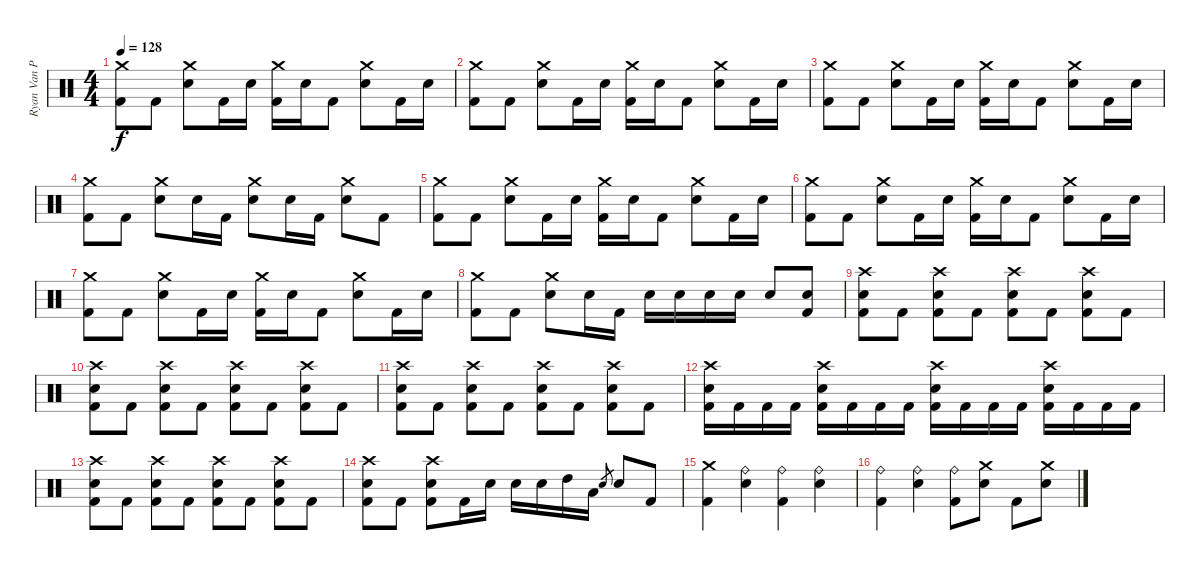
\track ("Ryan Van Poederooyen" "Ryan Van P") {instrument percussion}
\staff {score}
\articulation defaults
\ts (4 4)
\tempo 128
\clef neutral
\ks c
("Crash medium (hit)" "Kick (hit) 2").8{dy f} "Kick (hit) 2".8 ("Crash medium (hit)" "Electric Snare (hit)").8 "Kick (hit) 2".16 "Electric Snare (hit)".16 ("Crash medium (hit)" "Kick (hit) 2").16 "Electric Snare (hit)".16 "Kick (hit) 2".8 ("Crash medium (hit)" "Electric Snare (hit)").8 "Kick (hit) 2".16 "Electric Snare (hit)".16 |
("Crash medium (hit)" "Kick (hit) 2").8 "Kick (hit) 2".8 ("Crash medium (hit)" "Electric Snare (hit)").8 "Kick (hit) 2".16 "Electric Snare (hit)".16 ("Crash medium (hit)" "Kick (hit) 2").16 "Electric Snare (hit)".16 "Kick (hit) 2".8 ("Crash medium (hit)" "Electric Snare (hit)").8 "Kick (hit) 2".16 "Electric Snare (hit)".16 |
("Crash medium (hit)" "Kick (hit) 2").8 "Kick (hit) 2".8 ("Crash medium (hit)" "Electric Snare (hit)").8 "Kick (hit) 2".16 "Electric Snare (hit)".16 ("Crash medium (hit)" "Kick (hit) 2").16 "Electric Snare (hit)".16 "Kick (hit) 2".8 ("Crash medium (hit)" "Electric Snare (hit)").8 "Kick (hit) 2".16 "Electric Snare (hit)".16 |
("Crash medium (hit)" "Kick (hit) 2").8 "Kick (hit) 2".8 ("Crash medium (hit)" "Electric Snare (hit)").8 "Electric Snare (hit)".16 "Kick (hit) 2".16 ("Crash medium (hit)" "Electric Snare (hit)").8 "Electric Snare (hit)".16 "Kick (hit) 2".16 ("Crash medium (hit)" "Electric Snare (hit)").8 "Kick (hit) 2".8 |
("Crash medium (hit)" "Kick (hit) 2").8 "Kick (hit) 2".8 ("Crash medium (hit)" "Electric Snare (hit)").8 "Kick (hit) 2".16 "Electric Snare (hit)".16 ("Crash medium (hit)" "Kick (hit) 2").16 "Electric Snare (hit)".16 "Kick (hit) 2".8 ("Crash medium (hit)" "Electric Snare (hit)").8 "Kick (hit) 2".16 "Electric Snare (hit)".16 |
("Crash medium (hit)" "Kick (hit) 2").8 "Kick (hit) 2".8 ("Crash medium (hit)" "Electric Snare (hit)").8 "Kick (hit) 2".16 "Electric Snare (hit)".16 ("Crash medium (hit)" "Kick (hit) 2").16 "Electric Snare (hit)".16 "Kick (hit) 2".8 ("Crash medium (hit)" "Electric Snare (hit)").8 "Kick (hit) 2".16 "Electric Snare (hit)".16 |
("Crash medium (hit)" "Kick (hit) 2").8 "Kick (hit) 2".8 ("Crash medium (hit)" "Electric Snare (hit)").8 "Kick (hit) 2".16 "Electric Snare (hit)".16 ("Crash medium (hit)" "Kick (hit) 2").16 "Electric Snare (hit)".16 "Kick (hit) 2".8 ("Crash medium (hit)" "Electric Snare (hit)").8 "Kick (hit) 2".16 "Electric Snare (hit)".16 |
("Crash medium (hit)" "Kick (hit) 2").8 "Kick (hit) 2".8 ("Crash medium (hit)" "Electric Snare (hit)").8 "Electric Snare (hit)".16 "Kick (hit) 2".16 "Electric Snare (hit)".16 "Electric Snare (hit)".16 "Electric Snare (hit)".16 "Electric Snare (hit)".16 "Electric Snare (hit)".8 ("Electric Snare (hit)" "Kick (hit) 2").8 |
("Crash high (hit)" "Electric Snare (hit)" "Kick (hit) 2").8 "Kick (hit) 2".8 ("Crash high (hit)" "Electric Snare (hit)" "Kick (hit) 2").8 "Kick (hit) 2".8 ("Crash high (hit)" "Electric Snare (hit)" "Kick (hit) 2").8 "Kick (hit) 2".8 ("Crash high (hit)" "Electric Snare (hit)" "Kick (hit) 2").8 "Kick (hit) 2".8 |
("Crash high (hit)" "Electric Snare (hit)" "Kick (hit) 2").8 "Kick (hit) 2".8 ("Crash high (hit)" "Electric Snare (hit)" "Kick (hit) 2").8 "Kick (hit) 2".8 ("Crash high (hit)" "Electric Snare (hit)" "Kick (hit) 2").8 "Kick (hit) 2".8 ("Crash high (hit)" "Electric Snare (hit)" "Kick (hit) 2").8 "Kick (hit) 2".8 |
("Crash high (hit)" "Electric Snare (hit)" "Kick (hit) 2").8 "Kick (hit) 2".8 ("Crash high (hit)" "Electric Snare (hit)" "Kick (hit) 2").8 "Kick (hit) 2".8 ("Crash high (hit)" "Electric Snare (hit)" "Kick (hit) 2").8 "Kick (hit) 2".8 ("Crash high (hit)" "Electric Snare (hit)" "Kick (hit) 2").8 "Kick (hit) 2".8 |
("Crash high (hit)" "Electric Snare (hit)" "Kick (hit) 2").16 "Kick (hit) 2".16 "Kick (hit) 2".16 "Kick (hit) 2".16 ("Crash high (hit)" "Electric Snare (hit)" "Kick (hit) 2").16 "Kick (hit) 2".16 "Kick (hit) 2".16 "Kick (hit) 2".16 ("Crash high (hit)" "Electric Snare (hit)" "Kick (hit) 2").16 "Kick (hit) 2".16 "Kick (hit) 2".16 "Kick (hit) 2".16 ("Crash high (hit)" "Electric Snare (hit)" "Kick (hit) 2").16 "Kick (hit) 2".16 "Kick (hit) 2".16 "Kick (hit) 2".16 |
("Crash high (hit)" "Electric Snare (hit)" "Kick (hit) 2").8 "Kick (hit) 2".8 ("Crash high (hit)" "Electric Snare (hit)" "Kick (hit) 2").8 "Kick (hit) 2".8 ("Crash high (hit)" "Electric Snare (hit)" "Kick (hit) 2").8 "Kick (hit) 2".8 ("Crash high (hit)" "Electric Snare (hit)" "Kick (hit) 2").8 "Kick (hit) 2".8 |
("Crash high (hit)" "Electric Snare (hit)" "Kick (hit) 2").8 "Kick (hit) 2".8 ("Crash high (hit)" "Electric Snare (hit)" "Kick (hit) 2").8 "Kick (hit) 2".16 "Electric Snare (hit)".16 "Electric Snare (hit)".16 "Electric Snare (hit)".16 "High Tom (hit)".16 "Low Tom (hit)".16 "Electric Snare (hit)".8{gr} "Electric Snare (hit)".8 "Kick (hit) 2".8 |
("Crash medium (hit)" "Kick (hit) 2").4 ("Ride (bell)" "Electric Snare (hit)").4 ("Ride (bell)" "Kick (hit) 2").4 ("Ride (bell)" "Electric Snare (hit)").4 |
("Ride (bell)" "Kick (hit) 2").4 ("Ride (bell)" "Electric Snare (hit)").4 ("Ride (bell)" "Kick (hit) 2").8 ("Crash medium (hit)" "Electric Snare (hit)").8 "Kick (hit) 2".8 ("Crash medium (hit)" "Electric Snare (hit)").8
